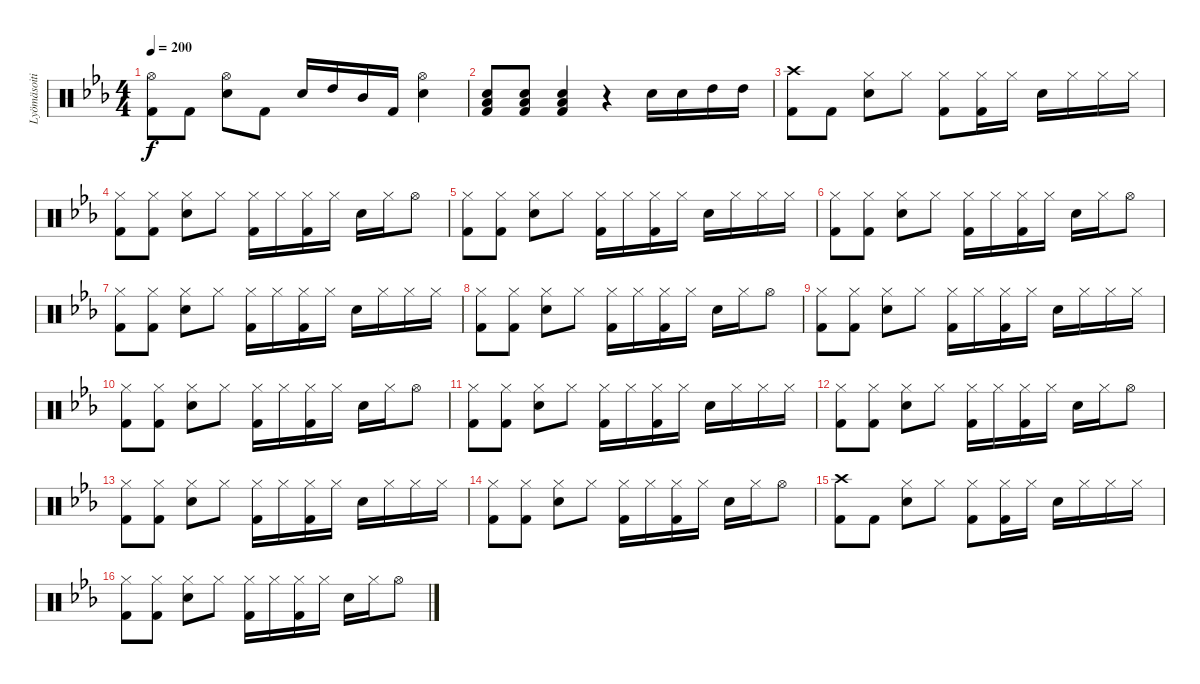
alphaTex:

\track ("Lyömäsoitin" "Lyömäsoiti") {instrument percussion}
\staff {score}
\articulation defaults
\ts (4 4)
\tempo 200
\clef neutral
\ks eb
("Hi-Hat (open)" "Kick (hit) 2").8{dy f} "Kick (hit) 2".8 ("Hi-Hat (open)" "Snare (hit) 2").8 "Kick (hit) 2".8 "Snare (hit) 2".16 "High Tom (hit)".16 "Mid Tom (hit)".16 "Kick (hit) 2".16 ("Hi-Hat (open)" "Snare (hit) 2").4 |
("Snare (hit) 2" "Low Tom (hit)" "Kick (hit) 2").8 ("Snare (hit) 2" "Low Tom (hit)" "Kick (hit) 2").8 ("Snare (hit) 2" "Low Tom (hit)" "Kick (hit) 2").4 r.4 "Snare (hit) 2".16 "Snare (hit) 2".16 "High Tom (hit)".16 "High Tom (hit)".16 |
("Crash high (hit)" "Kick (hit) 2").8 "Kick (hit) 2".8 ("Hi-Hat (closed)" "Snare (hit) 2").8 "Hi-Hat (closed)".8 ("Hi-Hat (closed)" "Kick (hit) 2").8 ("Hi-Hat (closed)" "Kick (hit) 2").16 "Hi-Hat (closed)".16 "Snare (hit) 2".16 "Hi-Hat (closed)".16 "Hi-Hat (closed)".16 "Hi-Hat (closed)".16 |
("Hi-Hat (closed)" "Kick (hit) 2").8 ("Hi-Hat (closed)" "Kick (hit) 2").8 ("Hi-Hat (closed)" "Snare (hit) 2").8 "Hi-Hat (closed)".8 ("Hi-Hat (closed)" "Kick (hit) 2").16 "Hi-Hat (closed)".16 ("Hi-Hat (closed)" "Kick (hit) 2").16 "Hi-Hat (closed)".16 "Snare (hit) 2".16 "Hi-Hat (closed)".16 "Hi-Hat (open)".8 |
("Hi-Hat (closed)" "Kick (hit) 2").8 ("Hi-Hat (closed)" "Kick (hit) 2").8 ("Hi-Hat (closed)" "Snare (hit) 2").8 "Hi-Hat (closed)".8 ("Hi-Hat (closed)" "Kick (hit) 2").16 "Hi-Hat (closed)".16 ("Hi-Hat (closed)" "Kick (hit) 2").16 "Hi-Hat (closed)".16 "Snare (hit) 2".16 "Hi-Hat (closed)".16 "Hi-Hat (closed)".16 "Hi-Hat (closed)".16 |
("Hi-Hat (closed)" "Kick (hit) 2").8 ("Hi-Hat (closed)" "Kick (hit) 2").8 ("Hi-Hat (closed)" "Snare (hit) 2").8 "Hi-Hat (closed)".8 ("Hi-Hat (closed)" "Kick (hit) 2").16 "Hi-Hat (closed)".16 ("Hi-Hat (closed)" "Kick (hit) 2").16 "Hi-Hat (closed)".16 "Snare (hit) 2".16 "Hi-Hat (closed)".16 "Hi-Hat (open)".8 |
("Hi-Hat (closed)" "Kick (hit) 2").8 ("Hi-Hat (closed)" "Kick (hit) 2").8 ("Hi-Hat (closed)" "Snare (hit) 2").8 "Hi-Hat (closed)".8 ("Hi-Hat (closed)" "Kick (hit) 2").16 "Hi-Hat (closed)".16 ("Hi-Hat (closed)" "Kick (hit) 2").16 "Hi-Hat (closed)".16 "Snare (hit) 2".16 "Hi-Hat (closed)".16 "Hi-Hat (closed)".16 "Hi-Hat (closed)".16 |
("Hi-Hat (closed)" "Kick (hit) 2").8 ("Hi-Hat (closed)" "Kick (hit) 2").8 ("Hi-Hat (closed)" "Snare (hit) 2").8 "Hi-Hat (closed)".8 ("Hi-Hat (closed)" "Kick (hit) 2").16 "Hi-Hat (closed)".16 ("Hi-Hat (closed)" "Kick (hit) 2").16 "Hi-Hat (closed)".16 "Snare (hit) 2".16 "Hi-Hat (closed)".16 "Hi-Hat (open)".8 |
("Hi-Hat (closed)" "Kick (hit) 2").8 ("Hi-Hat (closed)" "Kick (hit) 2").8 ("Hi-Hat (closed)" "Snare (hit) 2").8 "Hi-Hat (closed)".8 ("Hi-Hat (closed)" "Kick (hit) 2").16 "Hi-Hat (closed)".16 ("Hi-Hat (closed)" "Kick (hit) 2").16 "Hi-Hat (closed)".16 "Snare (hit) 2".16 "Hi-Hat (closed)".16 "Hi-Hat (closed)".16 "Hi-Hat (closed)".16 |
("Hi-Hat (closed)" "Kick (hit) 2").8 ("Hi-Hat (closed)" "Kick (hit) 2").8 ("Hi-Hat (closed)" "Snare (hit) 2").8 "Hi-Hat (closed)".8 ("Hi-Hat (closed)" "Kick (hit) 2").16 "Hi-Hat (closed)".16 ("Hi-Hat (closed)" "Kick (hit) 2").16 "Hi-Hat (closed)".16 "Snare (hit) 2".16 "Hi-Hat (closed)".16 "Hi-Hat (open)".8 |
("Hi-Hat (closed)" "Kick (hit) 2").8 ("Hi-Hat (closed)" "Kick (hit) 2").8 ("Hi-Hat (closed)" "Snare (hit) 2").8 "Hi-Hat (closed)".8 ("Hi-Hat (closed)" "Kick (hit) 2").16 "Hi-Hat (closed)".16 ("Hi-Hat (closed)" "Kick (hit) 2").16 "Hi-Hat (closed)".16 "Snare (hit) 2".16 "Hi-Hat (closed)".16 "Hi-Hat (closed)".16 "Hi-Hat (closed)".16 |
("Hi-Hat (closed)" "Kick (hit) 2").8 ("Hi-Hat (closed)" "Kick (hit) 2").8 ("Hi-Hat (closed)" "Snare (hit) 2").8 "Hi-Hat (closed)".8 ("Hi-Hat (closed)" "Kick (hit) 2").16 "Hi-Hat (closed)".16 ("Hi-Hat (closed)" "Kick (hit) 2").16 "Hi-Hat (closed)".16 "Snare (hit) 2".16 "Hi-Hat (closed)".16 "Hi-Hat (open)".8 |
("Hi-Hat (closed)" "Kick (hit) 2").8 ("Hi-Hat (closed)" "Kick (hit) 2").8 ("Hi-Hat (closed)" "Snare (hit) 2").8 "Hi-Hat (closed)".8 ("Hi-Hat (closed)" "Kick (hit) 2").16 "Hi-Hat (closed)".16 ("Hi-Hat (closed)" "Kick (hit) 2").16 "Hi-Hat (closed)".16 "Snare (hit) 2".16 "Hi-Hat (closed)".16 "Hi-Hat (closed)".16 "Hi-Hat (closed)".16 |
("Hi-Hat (closed)" "Kick (hit) 2").8 ("Hi-Hat (closed)" "Kick (hit) 2").8 ("Hi-Hat (closed)" "Snare (hit) 2").8 "Hi-Hat (closed)".8 ("Hi-Hat (closed)" "Kick (hit) 2").16 "Hi-Hat (closed)".16 ("Hi-Hat (closed)" "Kick (hit) 2").16 "Hi-Hat (closed)".16 "Snare (hit) 2".16 "Hi-Hat (closed)".16 "Hi-Hat (open)".8 |
("Crash high (hit)" "Kick (hit) 2").8 "Kick (hit) 2".8 ("Hi-Hat (closed)" "Snare (hit) 2").8 "Hi-Hat (closed)".8 ("Hi-Hat (closed)" "Kick (hit) 2").8 ("Hi-Hat (closed)" "Kick (hit) 2").16 "Hi-Hat (closed)".16 "Snare (hit) 2".16 "Hi-Hat (closed)".16 "Hi-Hat (closed)".16 "Hi-Hat (closed)".16 |
("Hi-Hat (closed)" "Kick (hit) 2").8 ("Hi-Hat (closed)" "Kick (hit) 2").8 ("Hi-Hat (closed)" "Snare (hit) 2").8 "Hi-Hat (closed)".8 ("Hi-Hat (closed)" "Kick (hit) 2").16 "Hi-Hat (closed)".16 ("Hi-Hat (closed)" "Kick (hit) 2").16 "Hi-Hat (closed)".16 "Snare (hit) 2".16 "Hi-Hat (closed)".16 "Hi-Hat (open)".8
